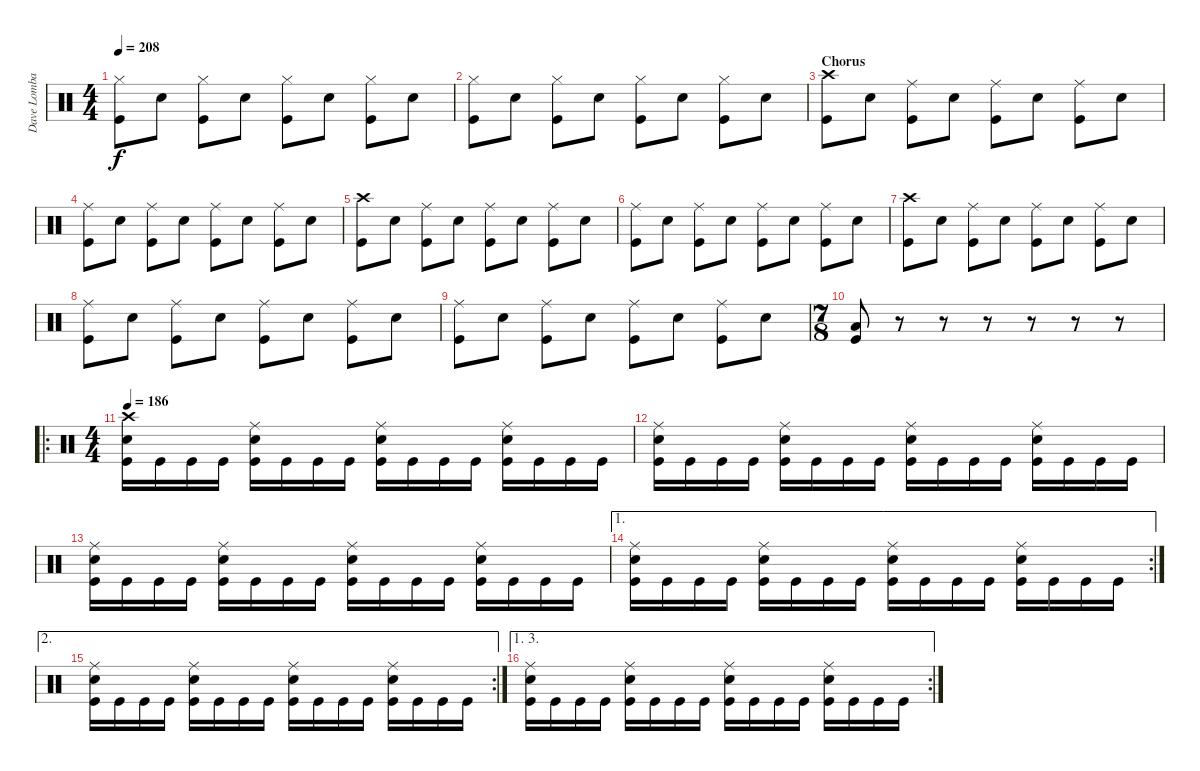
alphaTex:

\track ("Dave Lombardo" "Dave Lomba") {instrument percussion}
\staff {score}
\articulation defaults
\ts (4 4)
\tempo 208
\clef neutral
\ks c
("Hi-Hat (closed)" "Kick (hit)").8{dy f} "Electric Snare (hit)".8 ("Hi-Hat (closed)" "Kick (hit)").8 "Electric Snare (hit)".8 ("Hi-Hat (closed)" "Kick (hit)").8 "Electric Snare (hit)".8 ("Hi-Hat (closed)" "Kick (hit)").8 "Electric Snare (hit)".8 |
("Hi-Hat (closed)" "Kick (hit)").8 "Electric Snare (hit)".8 ("Hi-Hat (closed)" "Kick (hit)").8 "Electric Snare (hit)".8 ("Hi-Hat (closed)" "Kick (hit)").8 "Electric Snare (hit)".8 ("Hi-Hat (closed)" "Kick (hit)").8 "Electric Snare (hit)".8 |
\section ("" "Chorus")
("Crash high (hit)" "Kick (hit)").8 "Electric Snare (hit)".8 ("Ride (middle)" "Kick (hit)").8 "Electric Snare (hit)".8 ("Ride (middle)" "Kick (hit)").8 "Electric Snare (hit)".8 ("Ride (middle)" "Kick (hit)").8 "Electric Snare (hit)".8 |
("Ride (middle)" "Kick (hit)").8 "Electric Snare (hit)".8 ("Ride (middle)" "Kick (hit)").8 "Electric Snare (hit)".8 ("Ride (middle)" "Kick (hit)").8 "Electric Snare (hit)".8 ("Ride (middle)" "Kick (hit)").8 "Electric Snare (hit)".8 |
("Crash high (hit)" "Kick (hit)").8 "Electric Snare (hit)".8 ("Ride (middle)" "Kick (hit)").8 "Electric Snare (hit)".8 ("Ride (middle)" "Kick (hit)").8 "Electric Snare (hit)".8 ("Ride (middle)" "Kick (hit)").8 "Electric Snare (hit)".8 |
("Ride (middle)" "Kick (hit)").8 "Electric Snare (hit)".8 ("Ride (middle)" "Kick (hit)").8 "Electric Snare (hit)".8 ("Ride (middle)" "Kick (hit)").8 "Electric Snare (hit)".8 ("Ride (middle)" "Kick (hit)").8 "Electric Snare (hit)".8 |
("Crash high (hit)" "Kick (hit)").8 "Electric Snare (hit)".8 ("Ride (middle)" "Kick (hit)").8 "Electric Snare (hit)".8 ("Ride (middle)" "Kick (hit)").8 "Electric Snare (hit)".8 ("Ride (middle)" "Kick (hit)").8 "Electric Snare (hit)".8 |
("Ride (middle)" "Kick (hit)").8 "Electric Snare (hit)".8 ("Ride (middle)" "Kick (hit)").8 "Electric Snare (hit)".8 ("Ride (middle)" "Kick (hit)").8 "Electric Snare (hit)".8 ("Ride (middle)" "Kick (hit)").8 "Electric Snare (hit)".8 |
("Ride (middle)" "Kick (hit)").8 "Electric Snare (hit)".8 ("Ride (middle)" "Kick (hit)").8 "Electric Snare (hit)".8 ("Ride (middle)" "Kick (hit)").8 "Electric Snare (hit)".8 ("Ride (middle)" "Kick (hit)").8 "Electric Snare (hit)".8 |
\ts (7 8)
("Low Tom (hit)" "Kick (hit)").8 r.8 r.8 r.8 r.8 r.8 r.8 |
\ro
\ts (4 4)
\tempo 186
("Crash high (hit)" "Electric Snare (hit)" "Kick (hit)").16 "Kick (hit)".16 "Kick (hit)".16 "Kick (hit)".16 ("Ride (middle)" "Electric Snare (hit)" "Kick (hit)").16 "Kick (hit)".16 "Kick (hit)".16 "Kick (hit)".16 ("Ride (middle)" "Electric Snare (hit)" "Kick (hit)").16 "Kick (hit)".16 "Kick (hit)".16 "Kick (hit)".16 ("Ride (middle)" "Electric Snare (hit)" "Kick (hit)").16 "Kick (hit)".16 "Kick (hit)".16 "Kick (hit)".16 |
("Ride (middle)" "Electric Snare (hit)" "Kick (hit)").16 "Kick (hit)".16 "Kick (hit)".16 "Kick (hit)".16 ("Ride (middle)" "Electric Snare (hit)" "Kick (hit)").16 "Kick (hit)".16 "Kick (hit)".16 "Kick (hit)".16 ("Ride (middle)" "Electric Snare (hit)" "Kick (hit)").16 "Kick (hit)".16 "Kick (hit)".16 "Kick (hit)".16 ("Ride (middle)" "Electric Snare (hit)" "Kick (hit)").16 "Kick (hit)".16 "Kick (hit)".16 "Kick (hit)".16 |
("Ride (middle)" "Electric Snare (hit)" "Kick (hit)").16 "Kick (hit)".16 "Kick (hit)".16 "Kick (hit)".16 ("Ride (middle)" "Electric Snare (hit)" "Kick (hit)").16 "Kick (hit)".16 "Kick (hit)".16 "Kick (hit)".16 ("Ride (middle)" "Electric Snare (hit)" "Kick (hit)").16 "Kick (hit)".16 "Kick (hit)".16 "Kick (hit)".16 ("Ride (middle)" "Electric Snare (hit)" "Kick (hit)").16 "Kick (hit)".16 "Kick (hit)".16 "Kick (hit)".16 |
\ae 1
\rc 2
("Ride (middle)" "Electric Snare (hit)" "Kick (hit)").16 "Kick (hit)".16 "Kick (hit)".16 "Kick (hit)".16 ("Ride (middle)" "Electric Snare (hit)" "Kick (hit)").16 "Kick (hit)".16 "Kick (hit)".16 "Kick (hit)".16 ("Ride (middle)" "Electric Snare (hit)" "Kick (hit)").16 "Kick (hit)".16 "Kick (hit)".16 "Kick (hit)".16 ("Ride (middle)" "Electric Snare (hit)" "Kick (hit)").16 "Kick (hit)".16 "Kick (hit)".16 "Kick (hit)".16 |
\ae 2
\rc 2
("Ride (middle)" "Electric Snare (hit)" "Kick (hit)").16 "Kick (hit)".16 "Kick (hit)".16 "Kick (hit)".16 ("Ride (middle)" "Electric Snare (hit)" "Kick (hit)").16 "Kick (hit)".16 "Kick (hit)".16 "Kick (hit)".16 ("Ride (middle)" "Electric Snare (hit)" "Kick (hit)").16 "Kick (hit)".16 "Kick (hit)".16 "Kick (hit)".16 ("Ride (middle)" "Electric Snare (hit)" "Kick (hit)").16 "Kick (hit)".16 "Kick (hit)".16 "Kick (hit)".16 |
\ae (1 3)
\rc 2
("Ride (middle)" "Electric Snare (hit)" "Kick (hit)").16 "Kick (hit)".16 "Kick (hit)".16 "Kick (hit)".16 ("Ride (middle)" "Electric Snare (hit)" "Kick (hit)").16 "Kick (hit)".16 "Kick (hit)".16 "Kick (hit)".16 ("Ride (middle)" "Electric Snare (hit)" "Kick (hit)").16 "Kick (hit)".16 "Kick (hit)".16 "Kick (hit)".16 ("Ride (middle)" "Electric Snare (hit)" "Kick (hit)").16 "Kick (hit)".16 "Kick (hit)".16 "Kick (hit)".16
